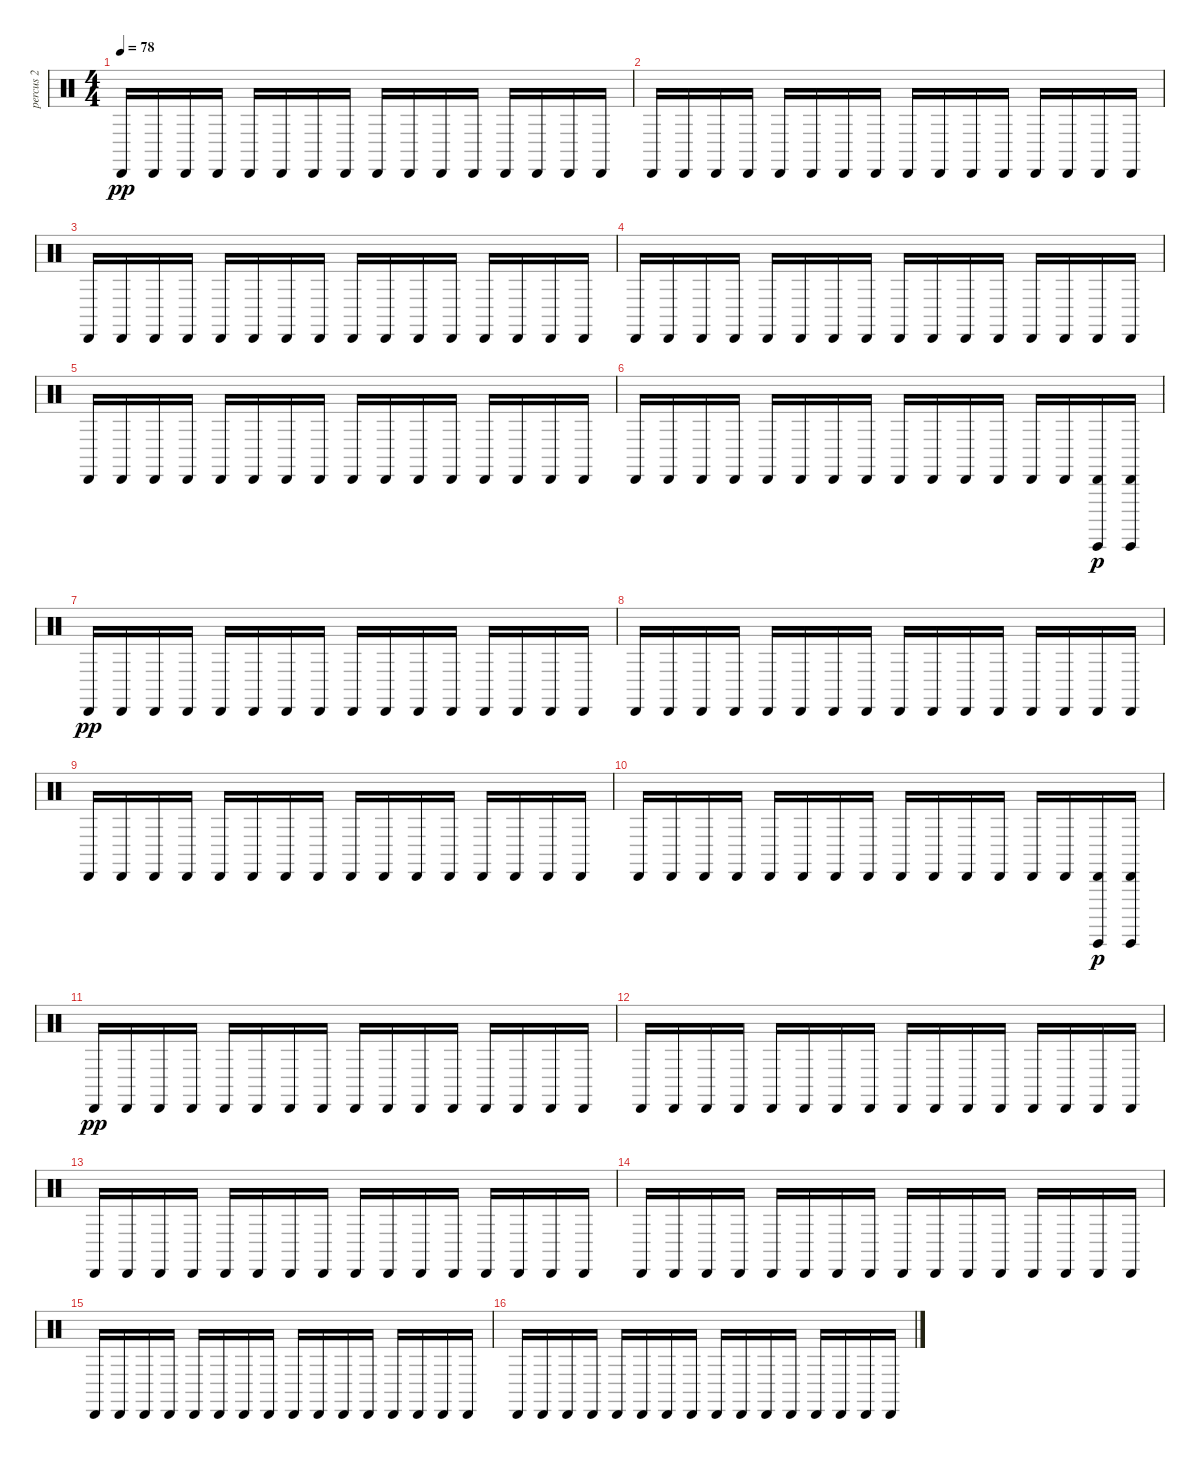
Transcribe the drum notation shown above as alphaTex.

\track ("percus 2" "percus 2") {instrument percussion}
\staff {score}
\articulation defaults
\ts (4 4)
\tempo 78
\clef neutral
\ks c "Cabasa (hit)".16{dy pp} "Cabasa (hit)".16 "Cabasa (hit)".16 "Cabasa (hit)".16 "Cabasa (hit)".16 "Cabasa (hit)".16 "Cabasa (hit)".16 "Cabasa (hit)".16 "Cabasa (hit)".16 "Cabasa (hit)".16 "Cabasa (hit)".16 "Cabasa (hit)".16 "Cabasa (hit)".16 "Cabasa (hit)".16 "Cabasa (hit)".16 "Cabasa (hit)".16
|
"Cabasa (hit)".16 "Cabasa (hit)".16 "Cabasa (hit)".16 "Cabasa (hit)".16 "Cabasa (hit)".16 "Cabasa (hit)".16 "Cabasa (hit)".16 "Cabasa (hit)".16 "Cabasa (hit)".16 "Cabasa (hit)".16 "Cabasa (hit)".16 "Cabasa (hit)".16 "Cabasa (hit)".16 "Cabasa (hit)".16 "Cabasa (hit)".16 "Cabasa (hit)".16 |
"Cabasa (hit)".16 "Cabasa (hit)".16 "Cabasa (hit)".16 "Cabasa (hit)".16 "Cabasa (hit)".16 "Cabasa (hit)".16 "Cabasa (hit)".16 "Cabasa (hit)".16 "Cabasa (hit)".16 "Cabasa (hit)".16 "Cabasa (hit)".16 "Cabasa (hit)".16 "Cabasa (hit)".16 "Cabasa (hit)".16 "Cabasa (hit)".16 "Cabasa (hit)".16 |
"Cabasa (hit)".16 "Cabasa (hit)".16 "Cabasa (hit)".16 "Cabasa (hit)".16 "Cabasa (hit)".16 "Cabasa (hit)".16 "Cabasa (hit)".16 "Cabasa (hit)".16 "Cabasa (hit)".16 "Cabasa (hit)".16 "Cabasa (hit)".16 "Cabasa (hit)".16 "Cabasa (hit)".16 "Cabasa (hit)".16 "Cabasa (hit)".16 "Cabasa (hit)".16 |
"Cabasa (hit)".16 "Cabasa (hit)".16 "Cabasa (hit)".16 "Cabasa (hit)".16 "Cabasa (hit)".16 "Cabasa (hit)".16 "Cabasa (hit)".16 "Cabasa (hit)".16 "Cabasa (hit)".16 "Cabasa (hit)".16 "Cabasa (hit)".16 "Cabasa (hit)".16 "Cabasa (hit)".16 "Cabasa (hit)".16 "Cabasa (hit)".16 "Cabasa (hit)".16 |
"Cabasa (hit)".16 "Cabasa (hit)".16 "Cabasa (hit)".16 "Cabasa (hit)".16 "Cabasa (hit)".16 "Cabasa (hit)".16 "Cabasa (hit)".16 "Cabasa (hit)".16 "Cabasa (hit)".16 "Cabasa (hit)".16 "Cabasa (hit)".16 "Cabasa (hit)".16 "Cabasa (hit)".16 "Cabasa (hit)".16 ("Cabasa (hit)" "Guiro (hit)").16{dy p} ("Cabasa (hit)" "Guiro (hit)").16 |
"Cabasa (hit)".16{dy pp} "Cabasa (hit)".16 "Cabasa (hit)".16 "Cabasa (hit)".16 "Cabasa (hit)".16 "Cabasa (hit)".16 "Cabasa (hit)".16 "Cabasa (hit)".16 "Cabasa (hit)".16 "Cabasa (hit)".16 "Cabasa (hit)".16 "Cabasa (hit)".16 "Cabasa (hit)".16 "Cabasa (hit)".16 "Cabasa (hit)".16 "Cabasa (hit)".16 |
"Cabasa (hit)".16 "Cabasa (hit)".16 "Cabasa (hit)".16 "Cabasa (hit)".16 "Cabasa (hit)".16 "Cabasa (hit)".16 "Cabasa (hit)".16 "Cabasa (hit)".16 "Cabasa (hit)".16 "Cabasa (hit)".16 "Cabasa (hit)".16 "Cabasa (hit)".16 "Cabasa (hit)".16 "Cabasa (hit)".16 "Cabasa (hit)".16 "Cabasa (hit)".16 |
"Cabasa (hit)".16 "Cabasa (hit)".16 "Cabasa (hit)".16 "Cabasa (hit)".16 "Cabasa (hit)".16 "Cabasa (hit)".16 "Cabasa (hit)".16 "Cabasa (hit)".16 "Cabasa (hit)".16 "Cabasa (hit)".16 "Cabasa (hit)".16 "Cabasa (hit)".16 "Cabasa (hit)".16 "Cabasa (hit)".16 "Cabasa (hit)".16 "Cabasa (hit)".16 |
"Cabasa (hit)".16 "Cabasa (hit)".16 "Cabasa (hit)".16 "Cabasa (hit)".16 "Cabasa (hit)".16 "Cabasa (hit)".16 "Cabasa (hit)".16 "Cabasa (hit)".16 "Cabasa (hit)".16 "Cabasa (hit)".16 "Cabasa (hit)".16 "Cabasa (hit)".16 "Cabasa (hit)".16 "Cabasa (hit)".16 ("Cabasa (hit)" "Guiro (hit)").16{dy p} ("Cabasa (hit)" "Guiro (hit)").16 |
"Cabasa (hit)".16{dy pp} "Cabasa (hit)".16 "Cabasa (hit)".16 "Cabasa (hit)".16 "Cabasa (hit)".16 "Cabasa (hit)".16 "Cabasa (hit)".16 "Cabasa (hit)".16 "Cabasa (hit)".16 "Cabasa (hit)".16 "Cabasa (hit)".16 "Cabasa (hit)".16 "Cabasa (hit)".16 "Cabasa (hit)".16 "Cabasa (hit)".16 "Cabasa (hit)".16 |
"Cabasa (hit)".16 "Cabasa (hit)".16 "Cabasa (hit)".16 "Cabasa (hit)".16 "Cabasa (hit)".16 "Cabasa (hit)".16 "Cabasa (hit)".16 "Cabasa (hit)".16 "Cabasa (hit)".16 "Cabasa (hit)".16 "Cabasa (hit)".16 "Cabasa (hit)".16 "Cabasa (hit)".16 "Cabasa (hit)".16 "Cabasa (hit)".16 "Cabasa (hit)".16 |
"Cabasa (hit)".16 "Cabasa (hit)".16 "Cabasa (hit)".16 "Cabasa (hit)".16 "Cabasa (hit)".16 "Cabasa (hit)".16 "Cabasa (hit)".16 "Cabasa (hit)".16 "Cabasa (hit)".16 "Cabasa (hit)".16 "Cabasa (hit)".16 "Cabasa (hit)".16 "Cabasa (hit)".16 "Cabasa (hit)".16 "Cabasa (hit)".16 "Cabasa (hit)".16 |
"Cabasa (hit)".16 "Cabasa (hit)".16 "Cabasa (hit)".16 "Cabasa (hit)".16 "Cabasa (hit)".16 "Cabasa (hit)".16 "Cabasa (hit)".16 "Cabasa (hit)".16 "Cabasa (hit)".16 "Cabasa (hit)".16 "Cabasa (hit)".16 "Cabasa (hit)".16 "Cabasa (hit)".16 "Cabasa (hit)".16 "Cabasa (hit)".16 "Cabasa (hit)".16 |
"Cabasa (hit)".16 "Cabasa (hit)".16 "Cabasa (hit)".16 "Cabasa (hit)".16 "Cabasa (hit)".16 "Cabasa (hit)".16 "Cabasa (hit)".16 "Cabasa (hit)".16 "Cabasa (hit)".16 "Cabasa (hit)".16 "Cabasa (hit)".16 "Cabasa (hit)".16 "Cabasa (hit)".16 "Cabasa (hit)".16 "Cabasa (hit)".16 "Cabasa (hit)".16 |
"Cabasa (hit)".16 "Cabasa (hit)".16 "Cabasa (hit)".16 "Cabasa (hit)".16 "Cabasa (hit)".16 "Cabasa (hit)".16 "Cabasa (hit)".16 "Cabasa (hit)".16 "Cabasa (hit)".16 "Cabasa (hit)".16 "Cabasa (hit)".16 "Cabasa (hit)".16 "Cabasa (hit)".16 "Cabasa (hit)".16 "Cabasa (hit)".16 "Cabasa (hit)".16
